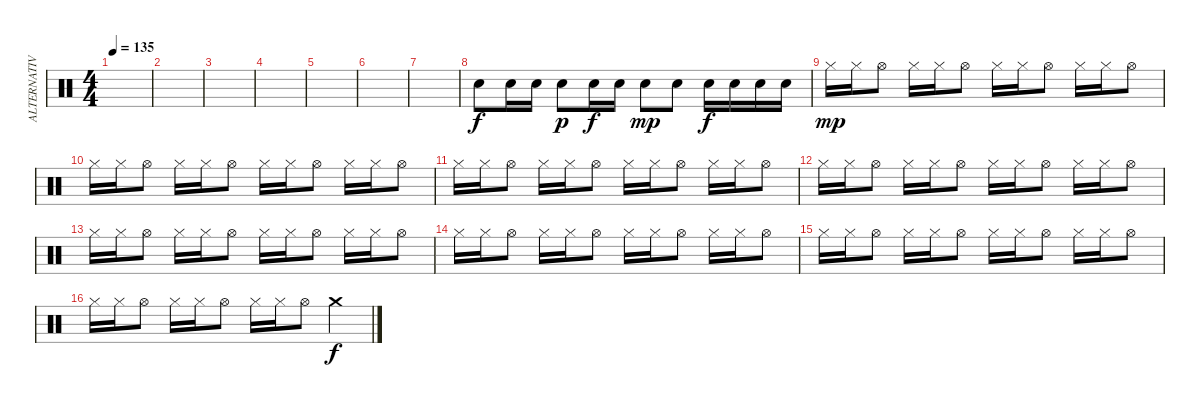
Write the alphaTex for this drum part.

\track ("ALTERNATIVE" "ALTERNATIV") {instrument percussion}
\staff {score}
\articulation defaults
\ts (4 4)
\tempo 135
\clef neutral
\ks c
|
|
|
|
|
|
|
"Electric Snare (hit)".8 "Electric Snare (hit)".16 "Electric Snare (hit)".16 "Electric Snare (hit)".8{dy p} "Electric Snare (hit)".16{dy f} "Electric Snare (hit)".16 "Electric Snare (hit)".8{dy mp} "Electric Snare (hit)".8 "Electric Snare (hit)".16{dy f} "Electric Snare (hit)".16 "Electric Snare (hit)".16 "Electric Snare (hit)".16 |
"Hi-Hat (closed)".16{dy mp} "Hi-Hat (closed)".16 "Hi-Hat (open)".8 "Hi-Hat (closed)".16 "Hi-Hat (closed)".16 "Hi-Hat (open)".8 "Hi-Hat (closed)".16 "Hi-Hat (closed)".16 "Hi-Hat (open)".8 "Hi-Hat (closed)".16 "Hi-Hat (closed)".16 "Hi-Hat (open)".8 |
"Hi-Hat (closed)".16 "Hi-Hat (closed)".16 "Hi-Hat (open)".8 "Hi-Hat (closed)".16 "Hi-Hat (closed)".16 "Hi-Hat (open)".8 "Hi-Hat (closed)".16 "Hi-Hat (closed)".16 "Hi-Hat (open)".8 "Hi-Hat (closed)".16 "Hi-Hat (closed)".16 "Hi-Hat (open)".8 |
"Hi-Hat (closed)".16 "Hi-Hat (closed)".16 "Hi-Hat (open)".8 "Hi-Hat (closed)".16 "Hi-Hat (closed)".16 "Hi-Hat (open)".8 "Hi-Hat (closed)".16 "Hi-Hat (closed)".16 "Hi-Hat (open)".8 "Hi-Hat (closed)".16 "Hi-Hat (closed)".16 "Hi-Hat (open)".8 |
"Hi-Hat (closed)".16 "Hi-Hat (closed)".16 "Hi-Hat (open)".8 "Hi-Hat (closed)".16 "Hi-Hat (closed)".16 "Hi-Hat (open)".8 "Hi-Hat (closed)".16 "Hi-Hat (closed)".16 "Hi-Hat (open)".8 "Hi-Hat (closed)".16 "Hi-Hat (closed)".16 "Hi-Hat (open)".8 |
"Hi-Hat (closed)".16 "Hi-Hat (closed)".16 "Hi-Hat (open)".8 "Hi-Hat (closed)".16 "Hi-Hat (closed)".16 "Hi-Hat (open)".8 "Hi-Hat (closed)".16 "Hi-Hat (closed)".16 "Hi-Hat (open)".8 "Hi-Hat (closed)".16 "Hi-Hat (closed)".16 "Hi-Hat (open)".8 |
"Hi-Hat (closed)".16 "Hi-Hat (closed)".16 "Hi-Hat (open)".8 "Hi-Hat (closed)".16 "Hi-Hat (closed)".16 "Hi-Hat (open)".8 "Hi-Hat (closed)".16 "Hi-Hat (closed)".16 "Hi-Hat (open)".8 "Hi-Hat (closed)".16 "Hi-Hat (closed)".16 "Hi-Hat (open)".8 |
"Hi-Hat (closed)".16 "Hi-Hat (closed)".16 "Hi-Hat (open)".8 "Hi-Hat (closed)".16 "Hi-Hat (closed)".16 "Hi-Hat (open)".8 "Hi-Hat (closed)".16 "Hi-Hat (closed)".16 "Hi-Hat (open)".8 "Hi-Hat (closed)".16 "Hi-Hat (closed)".16 "Hi-Hat (open)".8 |
"Hi-Hat (closed)".16 "Hi-Hat (closed)".16 "Hi-Hat (open)".8 "Hi-Hat (closed)".16 "Hi-Hat (closed)".16 "Hi-Hat (open)".8 "Hi-Hat (closed)".16 "Hi-Hat (closed)".16 "Hi-Hat (open)".8 "Crash medium (hit)".4{dy f}
